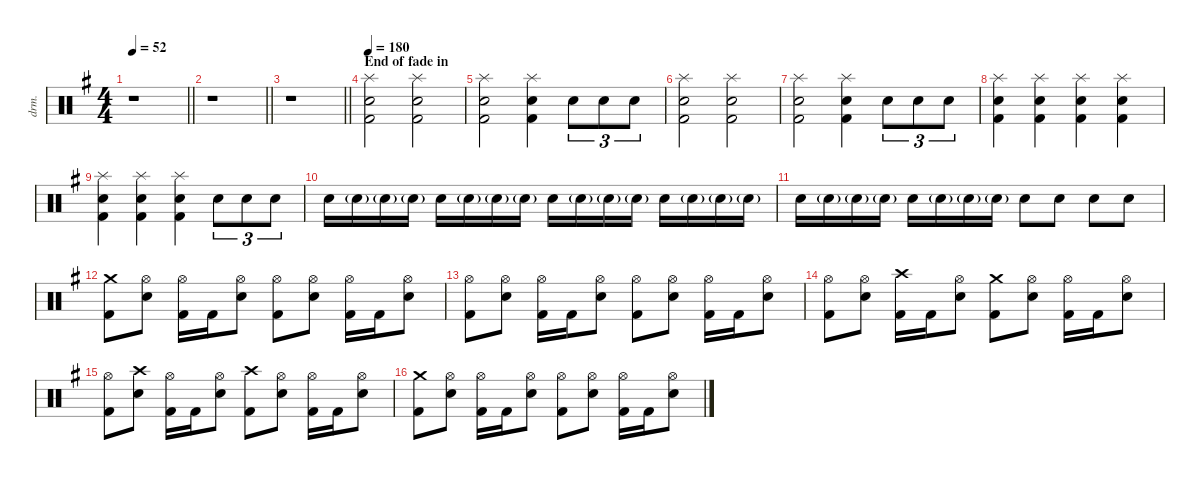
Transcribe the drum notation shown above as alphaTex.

\defaultSystemsLayout 4
\hideDynamics
\bracketExtendMode nobrackets
\otherSystemsTrackNameOrientation horizontal
\track ("Lars Ulrich" "drm.") {instrument percussion}
\staff {score}
\articulation defaults
\ts (4 4)
\tempo 52
\clef neutral
\barLineRight lightlight
\ks eminor
r.1{dy f beam Down} |
\barLineRight lightlight
r.1{beam Down} |
\barLineRight lightlight
r.1{beam Down} |
\section ("" "End of fade in")
\tempo 180
("Splash (hit)"{acc forcenatural} "Snare (hit) 2"{acc forcenatural} "Kick (hit) 2"{acc forcenatural}).2{beam Down} ("Splash (hit)"{acc forcenatural} "Snare (hit) 2"{acc forcenatural} "Kick (hit) 2"{acc forcenatural}).2{beam Down} |
("Splash (hit)"{acc forcenatural} "Snare (hit) 2"{acc forcenatural} "Kick (hit) 2"{acc forcenatural}).2{beam Down} ("Splash (hit)"{acc forcenatural} "Snare (hit) 2"{acc forcenatural} "Kick (hit) 2"{acc forcenatural}).4{beam Down} "Snare (hit) 2"{acc forcenatural}.8{tu (3 2) beam Down} "Snare (hit) 2"{acc forcenatural}.8{tu (3 2) beam Down} "Snare (hit) 2"{acc forcenatural}.8{tu (3 2) beam Down} |
("Splash (hit)"{acc forcenatural} "Snare (hit) 2"{acc forcenatural} "Kick (hit) 2"{acc forcenatural}).2{beam Down} ("Splash (hit)"{acc forcenatural} "Snare (hit) 2"{acc forcenatural} "Kick (hit) 2"{acc forcenatural}).2{beam Down} |
("Splash (hit)"{acc forcenatural} "Snare (hit) 2"{acc forcenatural} "Kick (hit) 2"{acc forcenatural}).2{beam Down} ("Splash (hit)"{acc forcenatural} "Snare (hit) 2"{acc forcenatural} "Kick (hit) 2"{acc forcenatural}).4{beam Down} "Snare (hit) 2"{acc forcenatural}.8{tu (3 2) beam Down} "Snare (hit) 2"{acc forcenatural}.8{tu (3 2) beam Down} "Snare (hit) 2"{acc forcenatural}.8{tu (3 2) beam Down} |
("Splash (hit)"{acc forcenatural} "Snare (hit) 2"{acc forcenatural} "Kick (hit) 2"{acc forcenatural}).4{beam Down} ("Splash (hit)"{acc forcenatural} "Snare (hit) 2"{acc forcenatural} "Kick (hit) 2"{acc forcenatural}).4{beam Down} ("Splash (hit)"{acc forcenatural} "Snare (hit) 2"{acc forcenatural} "Kick (hit) 2"{acc forcenatural}).4{beam Down} ("Splash (hit)"{acc forcenatural} "Snare (hit) 2"{acc forcenatural} "Kick (hit) 2"{acc forcenatural}).4{beam Down} |
("Splash (hit)"{acc forcenatural} "Snare (hit) 2"{acc forcenatural} "Kick (hit) 2"{acc forcenatural}).4{beam Down} ("Splash (hit)"{acc forcenatural} "Snare (hit) 2"{acc forcenatural} "Kick (hit) 2"{acc forcenatural}).4{beam Down} ("Splash (hit)"{acc forcenatural} "Snare (hit) 2"{acc forcenatural} "Kick (hit) 2"{acc forcenatural}).4{beam Down} "Snare (hit) 2"{acc forcenatural}.8{tu (3 2) beam Down} "Snare (hit) 2"{acc forcenatural}.8{tu (3 2) beam Down} "Snare (hit) 2"{acc forcenatural}.8{tu (3 2) beam Down} |
"Snare (hit) 2"{acc forcenatural}.16{dy mp beam Down} "Snare (hit) 2"{g acc forcenatural}.16{dy f beam Down} "Snare (hit) 2"{g acc forcenatural}.16{beam Down} "Snare (hit) 2"{g acc forcenatural}.16{beam Down} "Snare (hit) 2"{acc forcenatural}.16{dy mf beam Down} "Snare (hit) 2"{g acc forcenatural}.16{dy ff beam Down} "Snare (hit) 2"{g acc forcenatural}.16{beam Down} "Snare (hit) 2"{g acc forcenatural}.16{beam Down} "Snare (hit) 2"{acc forcenatural}.16{dy f beam Down} "Snare (hit) 2"{g acc forcenatural}.16{dy fff beam Down} "Snare (hit) 2"{g acc forcenatural}.16{beam Down} "Snare (hit) 2"{g acc forcenatural}.16{beam Down} "Snare (hit) 2"{acc forcenatural}.16{dy f beam Down} "Snare (hit) 2"{g acc forcenatural}.16{dy fff beam Down} "Snare (hit) 2"{g acc forcenatural}.16{beam Down} "Snare (hit) 2"{g acc forcenatural}.16{beam Down} |
"Snare (hit) 2"{acc forcenatural}.16{dy ff beam Down} "Snare (hit) 2"{g acc forcenatural}.16{dy fff beam Down} "Snare (hit) 2"{g acc forcenatural}.16{beam Down} "Snare (hit) 2"{g acc forcenatural}.16{beam Down} "Snare (hit) 2"{acc forcenatural}.16{dy ff beam Down} "Snare (hit) 2"{g acc forcenatural}.16{beam Down} "Snare (hit) 2"{g acc forcenatural}.16{beam Down} "Snare (hit) 2"{g acc forcenatural}.16{beam Down} "Snare (hit) 2"{acc forcenatural}.8{beam Down} "Snare (hit) 2"{acc forcenatural}.8{beam Down} "Snare (hit) 2"{acc forcenatural}.8{beam Down} "Snare (hit) 2"{acc forcenatural}.8{beam Down} |
("Crash medium (hit)"{acc forcenatural} "Kick (hit) 2"{acc forcenatural}).8{dy f beam Down} ("Hi-Hat (open)"{acc forcenatural} "Snare (hit) 2"{acc forcenatural}).8{beam Down} ("Hi-Hat (open)"{acc forcenatural} "Kick (hit) 2"{acc forcenatural}).16{beam Down} "Kick (hit) 2"{acc forcenatural}.16{beam Down} ("Hi-Hat (open)"{acc forcenatural} "Snare (hit) 2"{acc forcenatural}).8{beam Down} ("Hi-Hat (open)"{acc forcenatural} "Kick (hit) 2"{acc forcenatural}).8{beam Down} ("Hi-Hat (open)"{acc forcenatural} "Snare (hit) 2"{acc forcenatural}).8{beam Down} ("Hi-Hat (open)"{acc forcenatural} "Kick (hit) 2"{acc forcenatural}).16{beam Down} "Kick (hit) 2"{acc forcenatural}.16{beam Down} ("Hi-Hat (open)"{acc forcenatural} "Snare (hit) 2"{acc forcenatural}).8{beam Down} |
("Hi-Hat (open)"{acc forcenatural} "Kick (hit) 2"{acc forcenatural}).8{beam Down} ("Hi-Hat (open)"{acc forcenatural} "Snare (hit) 2"{acc forcenatural}).8{beam Down} ("Hi-Hat (open)"{acc forcenatural} "Kick (hit) 2"{acc forcenatural}).16{beam Down} "Kick (hit) 2"{acc forcenatural}.16{beam Down} ("Hi-Hat (open)"{acc forcenatural} "Snare (hit) 2"{acc forcenatural}).8{beam Down} ("Hi-Hat (open)"{acc forcenatural} "Kick (hit) 2"{acc forcenatural}).8{beam Down} ("Hi-Hat (open)"{acc forcenatural} "Snare (hit) 2"{acc forcenatural}).8{beam Down} ("Hi-Hat (open)"{acc forcenatural} "Kick (hit) 2"{acc forcenatural}).16{beam Down} "Kick (hit) 2"{acc forcenatural}.16{beam Down} ("Hi-Hat (open)"{acc forcenatural} "Snare (hit) 2"{acc forcenatural}).8{beam Down} |
("Hi-Hat (open)"{acc forcenatural} "Kick (hit) 2"{acc forcenatural}).8{beam Down} ("Hi-Hat (open)"{acc forcenatural} "Snare (hit) 2"{acc forcenatural}).8{beam Down} ("Crash high (hit)"{acc forcenatural} "Kick (hit) 2"{acc forcenatural}).16{beam Down} "Kick (hit) 2"{acc forcenatural}.16{beam Down} ("Hi-Hat (open)"{acc forcenatural} "Snare (hit) 2"{acc forcenatural}).8{beam Down} ("Crash medium (hit)"{acc forcenatural} "Kick (hit) 2"{acc forcenatural}).8{beam Down} ("Hi-Hat (open)"{acc forcenatural} "Snare (hit) 2"{acc forcenatural}).8{beam Down} ("Hi-Hat (open)"{acc forcenatural} "Kick (hit) 2"{acc forcenatural}).16{beam Down} "Kick (hit) 2"{acc forcenatural}.16{beam Down} ("Hi-Hat (open)"{acc forcenatural} "Snare (hit) 2"{acc forcenatural}).8{beam Down} |
("Hi-Hat (open)"{acc forcenatural} "Kick (hit) 2"{acc forcenatural}).8{beam Down} ("Crash high (hit)"{acc forcenatural} "Snare (hit) 2"{acc forcenatural}).8{beam Down} ("Hi-Hat (open)"{acc forcenatural} "Kick (hit) 2"{acc forcenatural}).16{beam Down} "Kick (hit) 2"{acc forcenatural}.16{beam Down} ("Hi-Hat (open)"{acc forcenatural} "Snare (hit) 2"{acc forcenatural}).8{beam Down} ("Crash high (hit)"{acc forcenatural} "Kick (hit) 2"{acc forcenatural}).8{beam Down} ("Hi-Hat (open)"{acc forcenatural} "Snare (hit) 2"{acc forcenatural}).8{beam Down} ("Hi-Hat (open)"{acc forcenatural} "Kick (hit) 2"{acc forcenatural}).16{beam Down} "Kick (hit) 2"{acc forcenatural}.16{beam Down} ("Hi-Hat (open)"{acc forcenatural} "Snare (hit) 2"{acc forcenatural}).8{beam Down} |
("Crash medium (hit)"{acc forcenatural} "Kick (hit) 2"{acc forcenatural}).8{beam Down} ("Hi-Hat (open)"{acc forcenatural} "Snare (hit) 2"{acc forcenatural}).8{beam Down} ("Hi-Hat (open)"{acc forcenatural} "Kick (hit) 2"{acc forcenatural}).16{beam Down} "Kick (hit) 2"{acc forcenatural}.16{beam Down} ("Hi-Hat (open)"{acc forcenatural} "Snare (hit) 2"{acc forcenatural}).8{beam Down} ("Hi-Hat (open)"{acc forcenatural} "Kick (hit) 2"{acc forcenatural}).8{beam Down} ("Hi-Hat (open)"{acc forcenatural} "Snare (hit) 2"{acc forcenatural}).8{beam Down} ("Hi-Hat (open)"{acc forcenatural} "Kick (hit) 2"{acc forcenatural}).16{beam Down} "Kick (hit) 2"{acc forcenatural}.16{beam Down} ("Hi-Hat (open)"{acc forcenatural} "Snare (hit) 2"{acc forcenatural}).8{beam Down}
